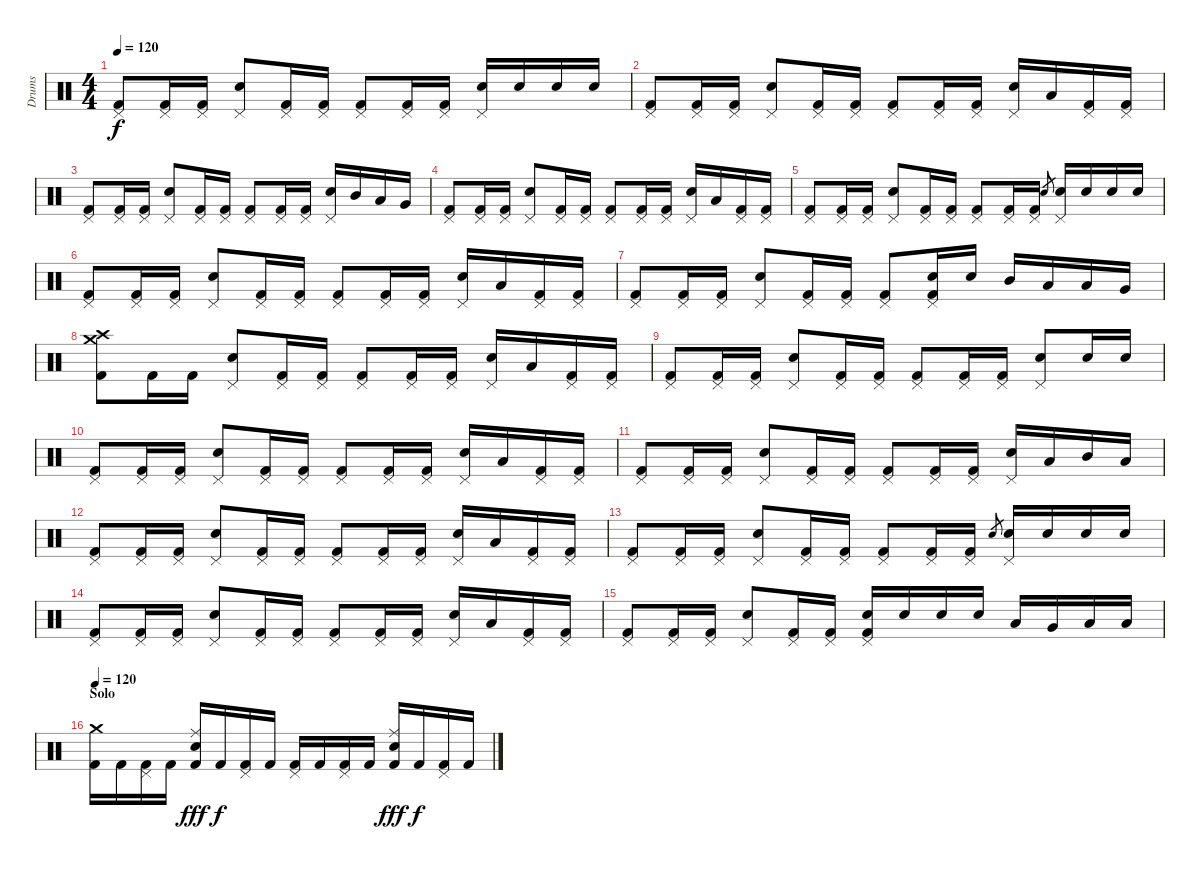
\track ("Drums" "Drums") {instrument percussion}
\staff {score}
\articulation defaults
\ts (4 4)
\tempo 120
\clef neutral
\ks c
("Pedal Hi-Hat (hit)" "Kick (hit) 2").8{dy f} ("Pedal Hi-Hat (hit)" "Kick (hit) 2").16 ("Pedal Hi-Hat (hit)" "Kick (hit) 2").16 ("Pedal Hi-Hat (hit)" "Electric Snare (hit)").8 ("Pedal Hi-Hat (hit)" "Kick (hit) 2").16 ("Pedal Hi-Hat (hit)" "Kick (hit) 2").16 ("Pedal Hi-Hat (hit)" "Kick (hit) 2").8 ("Pedal Hi-Hat (hit)" "Kick (hit) 2").16 ("Pedal Hi-Hat (hit)" "Kick (hit) 2").16 ("Pedal Hi-Hat (hit)" "Electric Snare (hit)").16 "Electric Snare (hit)".16 "Electric Snare (hit)".16 "Electric Snare (hit)".16 |
("Pedal Hi-Hat (hit)" "Kick (hit) 2").8 ("Pedal Hi-Hat (hit)" "Kick (hit) 2").16 ("Pedal Hi-Hat (hit)" "Kick (hit) 2").16 ("Pedal Hi-Hat (hit)" "Electric Snare (hit)").8 ("Pedal Hi-Hat (hit)" "Kick (hit) 2").16 ("Pedal Hi-Hat (hit)" "Kick (hit) 2").16 ("Pedal Hi-Hat (hit)" "Kick (hit) 2").8 ("Pedal Hi-Hat (hit)" "Kick (hit) 2").16 ("Pedal Hi-Hat (hit)" "Kick (hit) 2").16 ("Pedal Hi-Hat (hit)" "Electric Snare (hit)").16 "Low Tom (hit)".16 ("Pedal Hi-Hat (hit)" "Kick (hit) 2").16 ("Pedal Hi-Hat (hit)" "Kick (hit) 2").16 |
("Pedal Hi-Hat (hit)" "Kick (hit) 2").8 ("Pedal Hi-Hat (hit)" "Kick (hit) 2").16 ("Pedal Hi-Hat (hit)" "Kick (hit) 2").16 ("Pedal Hi-Hat (hit)" "Electric Snare (hit)").8 ("Pedal Hi-Hat (hit)" "Kick (hit) 2").16 ("Pedal Hi-Hat (hit)" "Kick (hit) 2").16 ("Pedal Hi-Hat (hit)" "Kick (hit) 2").8 ("Pedal Hi-Hat (hit)" "Kick (hit) 2").16 ("Pedal Hi-Hat (hit)" "Kick (hit) 2").16 ("Pedal Hi-Hat (hit)" "Electric Snare (hit)").16 "Mid Tom (hit)".16 "Low Tom (hit)".16 "Very Low Tom (hit)".16 |
("Pedal Hi-Hat (hit)" "Kick (hit) 2").8 ("Pedal Hi-Hat (hit)" "Kick (hit) 2").16 ("Pedal Hi-Hat (hit)" "Kick (hit) 2").16 ("Pedal Hi-Hat (hit)" "Electric Snare (hit)").8 ("Pedal Hi-Hat (hit)" "Kick (hit) 2").16 ("Pedal Hi-Hat (hit)" "Kick (hit) 2").16 ("Pedal Hi-Hat (hit)" "Kick (hit) 2").8 ("Pedal Hi-Hat (hit)" "Kick (hit) 2").16 ("Pedal Hi-Hat (hit)" "Kick (hit) 2").16 ("Pedal Hi-Hat (hit)" "Electric Snare (hit)").16 "Low Tom (hit)".16 ("Pedal Hi-Hat (hit)" "Kick (hit) 2").16 ("Pedal Hi-Hat (hit)" "Kick (hit) 2").16 |
("Pedal Hi-Hat (hit)" "Kick (hit) 2").8 ("Pedal Hi-Hat (hit)" "Kick (hit) 2").16 ("Pedal Hi-Hat (hit)" "Kick (hit) 2").16 ("Pedal Hi-Hat (hit)" "Electric Snare (hit)").8 ("Pedal Hi-Hat (hit)" "Kick (hit) 2").16 ("Pedal Hi-Hat (hit)" "Kick (hit) 2").16 ("Pedal Hi-Hat (hit)" "Kick (hit) 2").8 ("Pedal Hi-Hat (hit)" "Kick (hit) 2").16 ("Pedal Hi-Hat (hit)" "Kick (hit) 2").16 "Electric Snare (hit)".8{gr} ("Pedal Hi-Hat (hit)" "Electric Snare (hit)").16 "Electric Snare (hit)".16 "Electric Snare (hit)".16 "Electric Snare (hit)".16 |
("Pedal Hi-Hat (hit)" "Kick (hit) 2").8 ("Pedal Hi-Hat (hit)" "Kick (hit) 2").16 ("Pedal Hi-Hat (hit)" "Kick (hit) 2").16 ("Pedal Hi-Hat (hit)" "Electric Snare (hit)").8 ("Pedal Hi-Hat (hit)" "Kick (hit) 2").16 ("Pedal Hi-Hat (hit)" "Kick (hit) 2").16 ("Pedal Hi-Hat (hit)" "Kick (hit) 2").8 ("Pedal Hi-Hat (hit)" "Kick (hit) 2").16 ("Pedal Hi-Hat (hit)" "Kick (hit) 2").16 ("Pedal Hi-Hat (hit)" "Electric Snare (hit)").16 "Low Tom (hit)".16 ("Pedal Hi-Hat (hit)" "Kick (hit) 2").16 ("Pedal Hi-Hat (hit)" "Kick (hit) 2").16 |
("Pedal Hi-Hat (hit)" "Kick (hit) 2").8 ("Pedal Hi-Hat (hit)" "Kick (hit) 2").16 ("Pedal Hi-Hat (hit)" "Kick (hit) 2").16 ("Pedal Hi-Hat (hit)" "Electric Snare (hit)").8 ("Pedal Hi-Hat (hit)" "Kick (hit) 2").16 ("Pedal Hi-Hat (hit)" "Kick (hit) 2").16 ("Pedal Hi-Hat (hit)" "Kick (hit) 2").8 ("Pedal Hi-Hat (hit)" "Electric Snare (hit)" "Kick (hit) 2").16 "Electric Snare (hit)".16 "Mid Tom (hit)".16 "Low Tom (hit)".16 "Low Tom (hit)".16 "Very Low Tom (hit)".16 |
("Crash medium (hit)" "Crash high (hit)" "Kick (hit) 2").8 "Kick (hit) 2".16 "Kick (hit) 2".16 ("Pedal Hi-Hat (hit)" "Electric Snare (hit)").8 ("Pedal Hi-Hat (hit)" "Kick (hit) 2").16 ("Pedal Hi-Hat (hit)" "Kick (hit) 2").16 ("Pedal Hi-Hat (hit)" "Kick (hit) 2").8 ("Pedal Hi-Hat (hit)" "Kick (hit) 2").16 ("Pedal Hi-Hat (hit)" "Kick (hit) 2").16 ("Pedal Hi-Hat (hit)" "Electric Snare (hit)").16 "Low Tom (hit)".16 ("Pedal Hi-Hat (hit)" "Kick (hit) 2").16 ("Pedal Hi-Hat (hit)" "Kick (hit) 2").16 |
("Pedal Hi-Hat (hit)" "Kick (hit) 2").8 ("Pedal Hi-Hat (hit)" "Kick (hit) 2").16 ("Pedal Hi-Hat (hit)" "Kick (hit) 2").16 ("Pedal Hi-Hat (hit)" "Electric Snare (hit)").8 ("Pedal Hi-Hat (hit)" "Kick (hit) 2").16 ("Pedal Hi-Hat (hit)" "Kick (hit) 2").16 ("Pedal Hi-Hat (hit)" "Kick (hit) 2").8 ("Pedal Hi-Hat (hit)" "Kick (hit) 2").16 ("Pedal Hi-Hat (hit)" "Kick (hit) 2").16 ("Pedal Hi-Hat (hit)" "Electric Snare (hit)").8 "Electric Snare (hit)".16 "Electric Snare (hit)".16 |
("Pedal Hi-Hat (hit)" "Kick (hit) 2").8 ("Pedal Hi-Hat (hit)" "Kick (hit) 2").16 ("Pedal Hi-Hat (hit)" "Kick (hit) 2").16 ("Pedal Hi-Hat (hit)" "Electric Snare (hit)").8 ("Pedal Hi-Hat (hit)" "Kick (hit) 2").16 ("Pedal Hi-Hat (hit)" "Kick (hit) 2").16 ("Pedal Hi-Hat (hit)" "Kick (hit) 2").8 ("Pedal Hi-Hat (hit)" "Kick (hit) 2").16 ("Pedal Hi-Hat (hit)" "Kick (hit) 2").16 ("Pedal Hi-Hat (hit)" "Electric Snare (hit)").16 "Low Tom (hit)".16 ("Pedal Hi-Hat (hit)" "Kick (hit) 2").16 ("Pedal Hi-Hat (hit)" "Kick (hit) 2").16 |
("Pedal Hi-Hat (hit)" "Kick (hit) 2").8 ("Pedal Hi-Hat (hit)" "Kick (hit) 2").16 ("Pedal Hi-Hat (hit)" "Kick (hit) 2").16 ("Pedal Hi-Hat (hit)" "Electric Snare (hit)").8 ("Pedal Hi-Hat (hit)" "Kick (hit) 2").16 ("Pedal Hi-Hat (hit)" "Kick (hit) 2").16 ("Pedal Hi-Hat (hit)" "Kick (hit) 2").8 ("Pedal Hi-Hat (hit)" "Kick (hit) 2").16 ("Pedal Hi-Hat (hit)" "Kick (hit) 2").16 ("Pedal Hi-Hat (hit)" "Electric Snare (hit)").16 "Low Tom (hit)".16 "Mid Tom (hit)".16 "Low Tom (hit)".16 |
("Pedal Hi-Hat (hit)" "Kick (hit) 2").8 ("Pedal Hi-Hat (hit)" "Kick (hit) 2").16 ("Pedal Hi-Hat (hit)" "Kick (hit) 2").16 ("Pedal Hi-Hat (hit)" "Electric Snare (hit)").8 ("Pedal Hi-Hat (hit)" "Kick (hit) 2").16 ("Pedal Hi-Hat (hit)" "Kick (hit) 2").16 ("Pedal Hi-Hat (hit)" "Kick (hit) 2").8 ("Pedal Hi-Hat (hit)" "Kick (hit) 2").16 ("Pedal Hi-Hat (hit)" "Kick (hit) 2").16 ("Pedal Hi-Hat (hit)" "Electric Snare (hit)").16 "Low Tom (hit)".16 ("Pedal Hi-Hat (hit)" "Kick (hit) 2").16 ("Pedal Hi-Hat (hit)" "Kick (hit) 2").16 |
("Pedal Hi-Hat (hit)" "Kick (hit) 2").8 ("Pedal Hi-Hat (hit)" "Kick (hit) 2").16 ("Pedal Hi-Hat (hit)" "Kick (hit) 2").16 ("Pedal Hi-Hat (hit)" "Electric Snare (hit)").8 ("Pedal Hi-Hat (hit)" "Kick (hit) 2").16 ("Pedal Hi-Hat (hit)" "Kick (hit) 2").16 ("Pedal Hi-Hat (hit)" "Kick (hit) 2").8 ("Pedal Hi-Hat (hit)" "Kick (hit) 2").16 ("Pedal Hi-Hat (hit)" "Kick (hit) 2").16 "Electric Snare (hit)".8{gr} ("Pedal Hi-Hat (hit)" "Electric Snare (hit)").16 "Electric Snare (hit)".16 "Electric Snare (hit)".16 "Electric Snare (hit)".16 |
("Pedal Hi-Hat (hit)" "Kick (hit) 2").8 ("Pedal Hi-Hat (hit)" "Kick (hit) 2").16 ("Pedal Hi-Hat (hit)" "Kick (hit) 2").16 ("Pedal Hi-Hat (hit)" "Electric Snare (hit)").8 ("Pedal Hi-Hat (hit)" "Kick (hit) 2").16 ("Pedal Hi-Hat (hit)" "Kick (hit) 2").16 ("Pedal Hi-Hat (hit)" "Kick (hit) 2").8 ("Pedal Hi-Hat (hit)" "Kick (hit) 2").16 ("Pedal Hi-Hat (hit)" "Kick (hit) 2").16 ("Pedal Hi-Hat (hit)" "Electric Snare (hit)").16 "Low Tom (hit)".16 ("Pedal Hi-Hat (hit)" "Kick (hit) 2").16 ("Pedal Hi-Hat (hit)" "Kick (hit) 2").16 |
("Pedal Hi-Hat (hit)" "Kick (hit) 2").8 ("Pedal Hi-Hat (hit)" "Kick (hit) 2").16 ("Pedal Hi-Hat (hit)" "Kick (hit) 2").16 ("Pedal Hi-Hat (hit)" "Electric Snare (hit)").8 ("Pedal Hi-Hat (hit)" "Kick (hit) 2").16 ("Pedal Hi-Hat (hit)" "Kick (hit) 2").16 ("Pedal Hi-Hat (hit)" "Electric Snare (hit)" "Kick (hit) 2").16 "Electric Snare (hit)".16 "Electric Snare (hit)".16 "Electric Snare (hit)".16 "Low Tom (hit)".16 "Very Low Tom (hit)".16 "Low Floor Tom (hit)".16 "Low Floor Tom (hit)".16 |
\section ("" "Solo")
\tempo 120
("Crash medium (hit)" "Kick (hit) 2").16 "Kick (hit) 2".16 ("Pedal Hi-Hat (hit)" "Kick (hit) 2").16 "Kick (hit) 2".16 ("Ride (middle)" "Electric Snare (hit)" "Kick (hit) 2").16{dy fff} "Kick (hit) 2".16{dy f} ("Pedal Hi-Hat (hit)" "Kick (hit) 2").16 "Kick (hit) 2".16 ("Pedal Hi-Hat (hit)" "Kick (hit) 2").16 "Kick (hit) 2".16 ("Pedal Hi-Hat (hit)" "Kick (hit) 2").16 "Kick (hit) 2".16 ("Ride (middle)" "Electric Snare (hit)" "Kick (hit) 2").16{dy fff} "Kick (hit) 2".16{dy f} ("Pedal Hi-Hat (hit)" "Kick (hit) 2").16 "Kick (hit) 2".16
